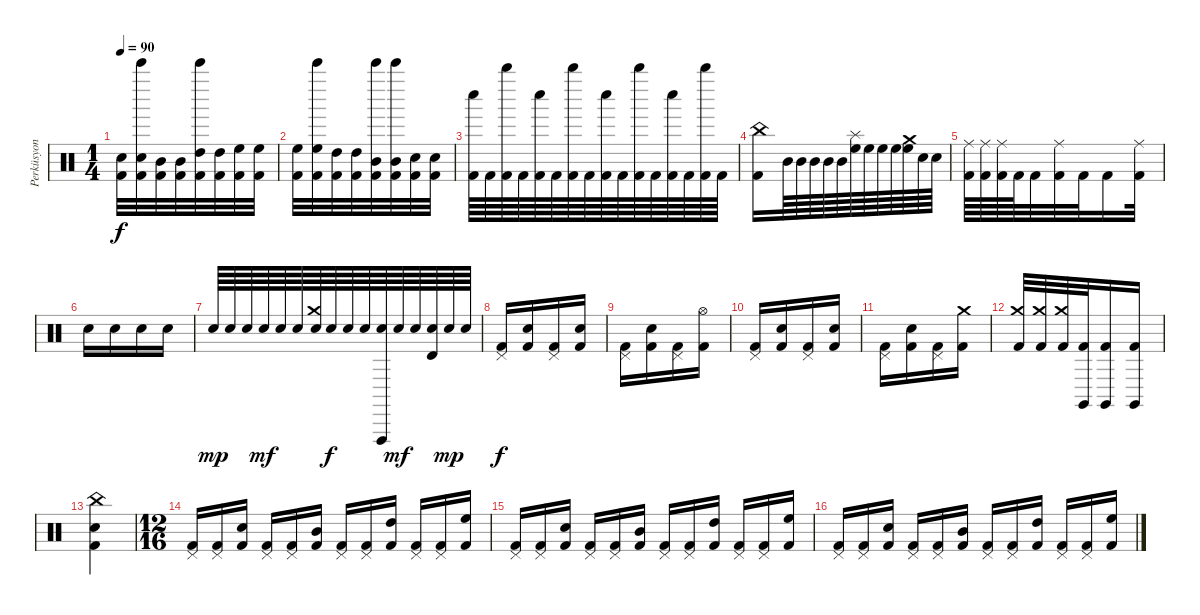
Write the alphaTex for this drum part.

\track ("Perküsyon" "Perküsyon") {instrument percussion}
\staff {score}
\articulation defaults
\ts (1 4)
\tempo 90
\clef neutral
\ks c
("Electric Snare (hit)" "Kick (hit) 2").32{dy f} ("Bell Tree (hit)" "Electric Snare (hit)" "Kick (hit) 2").32 ("Mid Tom (hit)" "Kick (hit) 2").32 ("Mid Tom (hit)" "Kick (hit) 2").32 ("Bell Tree (hit)" "High Tom (hit)" "Kick (hit) 2").32 ("High Tom (hit)" "Kick (hit) 2").32 ("High Floor Tom (hit)" "Kick (hit) 2").32 ("High Floor Tom (hit)" "Kick (hit) 2").32 |
("High Floor Tom (hit)" "Kick (hit) 2").32 ("Bell Tree (hit)" "High Floor Tom (hit)" "Kick (hit) 2").32 ("High Tom (hit)" "Kick (hit) 2").32 ("High Tom (hit)" "Kick (hit) 2").32 ("Bell Tree (hit)" "Mid Tom (hit)" "Kick (hit) 2").32 ("Bell Tree (hit)" "Mid Tom (hit)" "Kick (hit) 2").32 ("Electric Snare (hit)" "Kick (hit) 2").32 ("Electric Snare (hit)" "Kick (hit) 2").32 |
("Whistle low (hit)" "Kick (hit) 2").64 "Kick (hit) 2".64 ("Whistle high (hit)" "Kick (hit) 2").64 "Kick (hit) 2".64 ("Whistle low (hit)" "Kick (hit) 2").64 "Kick (hit) 2".64 ("Whistle high (hit)" "Kick (hit) 2").64 "Kick (hit) 2".64 ("Whistle low (hit)" "Kick (hit) 2").64 "Kick (hit) 2".64 ("Whistle high (hit)" "Kick (hit) 2").64 "Kick (hit) 2".64 ("Whistle low (hit)" "Kick (hit) 2").64 "Kick (hit) 2".64 ("Whistle high (hit)" "Kick (hit) 2").64 "Kick (hit) 2".64 |
("China (hit)" "Kick (hit) 2").16 "Mid Tom (hit)".64 "Mid Tom (hit)".64 "Mid Tom (hit)".64 "Mid Tom (hit)".64 "Mid Tom (hit)".64 ("Splash (hit)" "High Floor Tom (hit)").64 "High Floor Tom (hit)".64 "High Floor Tom (hit)".64 "High Floor Tom (hit)".64 ("Crash medium (hit)" "High Floor Tom (hit)").64 "Electric Snare (hit)".64 "Electric Snare (hit)".64 |
("Ride (middle)" "Kick (hit) 2").64 ("Ride (middle)" "Kick (hit) 2").64 ("Ride (middle)" "Kick (hit) 2").64 "Kick (hit) 2".64 "Kick (hit) 2".32 ("Ride (middle)" "Kick (hit) 2").32 "Kick (hit) 2".32 "Kick (hit) 2".16 ("Ride (middle)" "Kick (hit) 2").32 |
"Electric Snare (hit)".16 "Electric Snare (hit)".16 "Electric Snare (hit)".16 "Electric Snare (hit)".16 |
"Electric Snare (hit)".64{dy mp} "Electric Snare (hit)".64 "Electric Snare (hit)".64 "Electric Snare (hit)".64{dy mf} "Electric Snare (hit)".64 "Electric Snare (hit)".64 ("Crash medium (hit)" "Electric Snare (hit)").64 "Electric Snare (hit)".64{dy f} "Electric Snare (hit)".64 "Electric Snare (hit)".64 ("Vibraslap (hit)" "Electric Snare (hit)").64 "Electric Snare (hit)".64{dy mf} "Electric Snare (hit)".64 ("Timbale high (hit)" "Electric Snare (hit)").64 "Electric Snare (hit)".64{dy mp} "Electric Snare (hit)".64 |
("Pedal Hi-Hat (hit)" "Kick (hit) 2").16{dy f} ("Electric Snare (hit)" "Kick (hit) 2").16 ("Pedal Hi-Hat (hit)" "Kick (hit) 2").16 ("Electric Snare (hit)" "Kick (hit) 2").16 |
("Pedal Hi-Hat (hit)" "Kick (hit) 2").16 ("Electric Snare (hit)" "Kick (hit) 2").16 ("Pedal Hi-Hat (hit)" "Kick (hit) 2").16 ("Hi-Hat (open)" "Kick (hit) 2").16 |
("Pedal Hi-Hat (hit)" "Kick (hit) 2").16 ("Electric Snare (hit)" "Kick (hit) 2").16 ("Pedal Hi-Hat (hit)" "Kick (hit) 2").16 ("Electric Snare (hit)" "Kick (hit) 2").16 |
("Pedal Hi-Hat (hit)" "Kick (hit) 2").16 ("Electric Snare (hit)" "Kick (hit) 2").16 ("Pedal Hi-Hat (hit)" "Kick (hit) 2").16 ("Crash medium (hit)" "Kick (hit) 2").16 |
("Crash medium (hit)" "Kick (hit) 2").32 ("Crash medium (hit)" "Kick (hit) 2").32 ("Crash medium (hit)" "Kick (hit) 2").32 ("Claves (hit)" "Kick (hit) 2").32 ("Claves (hit)" "Kick (hit) 2").16 ("Claves (hit)" "Kick (hit) 2").16 |
("China (hit)" "Electric Snare (hit)" "Kick (hit) 2").4 |
\ts (12 16)
("Pedal Hi-Hat (hit)" "Kick (hit) 2").16 ("Pedal Hi-Hat (hit)" "Kick (hit) 2").16 ("Electric Snare (hit)" "Kick (hit) 2").16 ("Pedal Hi-Hat (hit)" "Kick (hit) 2").16 ("Pedal Hi-Hat (hit)" "Kick (hit) 2").16 ("Mid Tom (hit)" "Kick (hit) 2").16 ("Pedal Hi-Hat (hit)" "Kick (hit) 2").16 ("Pedal Hi-Hat (hit)" "Kick (hit) 2").16 ("High Tom (hit)" "Kick (hit) 2").16 ("Pedal Hi-Hat (hit)" "Kick (hit) 2").16 ("Pedal Hi-Hat (hit)" "Kick (hit) 2").16 ("High Floor Tom (hit)" "Kick (hit) 2").16 |
("Pedal Hi-Hat (hit)" "Kick (hit) 2").16 ("Pedal Hi-Hat (hit)" "Kick (hit) 2").16 ("Electric Snare (hit)" "Kick (hit) 2").16 ("Pedal Hi-Hat (hit)" "Kick (hit) 2").16 ("Pedal Hi-Hat (hit)" "Kick (hit) 2").16 ("Mid Tom (hit)" "Kick (hit) 2").16 ("Pedal Hi-Hat (hit)" "Kick (hit) 2").16 ("Pedal Hi-Hat (hit)" "Kick (hit) 2").16 ("High Tom (hit)" "Kick (hit) 2").16 ("Pedal Hi-Hat (hit)" "Kick (hit) 2").16 ("Pedal Hi-Hat (hit)" "Kick (hit) 2").16 ("High Floor Tom (hit)" "Kick (hit) 2").16 |
("Pedal Hi-Hat (hit)" "Kick (hit) 2").16 ("Pedal Hi-Hat (hit)" "Kick (hit) 2").16 ("Electric Snare (hit)" "Kick (hit) 2").16 ("Pedal Hi-Hat (hit)" "Kick (hit) 2").16 ("Pedal Hi-Hat (hit)" "Kick (hit) 2").16 ("Mid Tom (hit)" "Kick (hit) 2").16 ("Pedal Hi-Hat (hit)" "Kick (hit) 2").16 ("Pedal Hi-Hat (hit)" "Kick (hit) 2").16 ("High Tom (hit)" "Kick (hit) 2").16 ("Pedal Hi-Hat (hit)" "Kick (hit) 2").16 ("Pedal Hi-Hat (hit)" "Kick (hit) 2").16 ("High Floor Tom (hit)" "Kick (hit) 2").16
